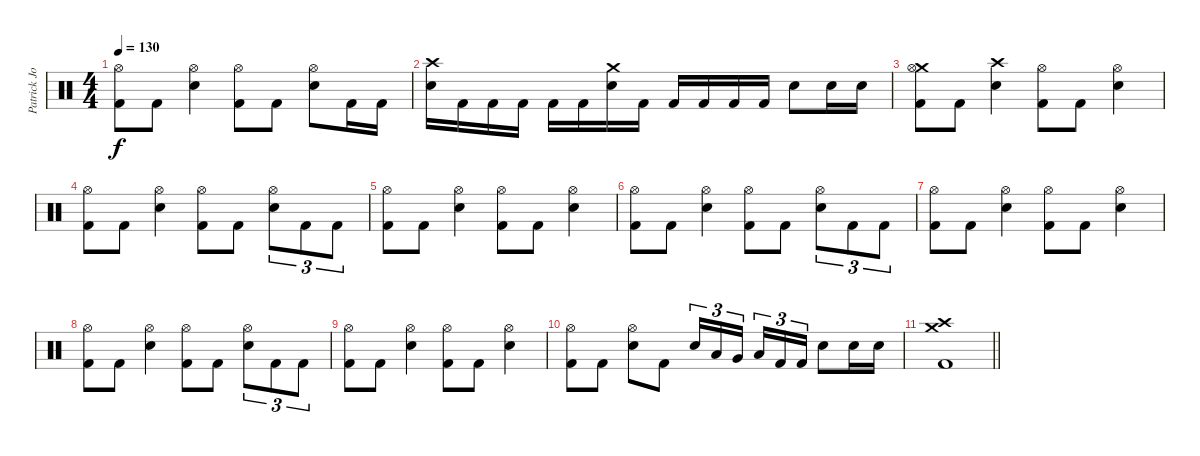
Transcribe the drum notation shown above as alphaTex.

\track ("Patrick Johansson " "Patrick Jo") {instrument percussion}
\staff {score}
\articulation defaults
\ts (4 4)
\tempo 130
\clef neutral
\ks c
("Hi-Hat (open)" "Kick (hit) 2").8{dy f} "Kick (hit) 2".8 ("Hi-Hat (open)" "Snare (hit) 2").4 ("Hi-Hat (open)" "Kick (hit) 2").8 "Kick (hit) 2".8 ("Hi-Hat (open)" "Snare (hit) 2").8 "Kick (hit) 2".16 "Kick (hit) 2".16 |
("Crash high (hit)" "Snare (hit) 2").16 "Kick (hit) 2".16 "Kick (hit) 2".16 "Kick (hit) 2".16 "Kick (hit) 2".16 "Kick (hit) 2".16 ("Crash medium (hit)" "Snare (hit) 2").16 "Kick (hit) 2".16 "Kick (hit) 2".16 "Kick (hit) 2".16 "Kick (hit) 2".16 "Kick (hit) 2".16 "Snare (hit) 2".8 "Snare (hit) 2".16 "Snare (hit) 2".16 |
("Crash medium (hit)" "Hi-Hat (open)" "Kick (hit) 2").8 "Kick (hit) 2".8 ("Crash high (hit)" "Snare (hit) 2").4 ("Hi-Hat (open)" "Kick (hit) 2").8 "Kick (hit) 2".8 ("Hi-Hat (open)" "Snare (hit) 2").4 |
("Hi-Hat (open)" "Kick (hit) 2").8 "Kick (hit) 2".8 ("Hi-Hat (open)" "Snare (hit) 2").4 ("Hi-Hat (open)" "Kick (hit) 2").8 "Kick (hit) 2".8 ("Hi-Hat (open)" "Snare (hit) 2").8{tu (3 2)} "Kick (hit) 2".8{tu (3 2)} "Kick (hit) 2".8{tu (3 2)} |
("Hi-Hat (open)" "Kick (hit) 2").8 "Kick (hit) 2".8 ("Hi-Hat (open)" "Snare (hit) 2").4 ("Hi-Hat (open)" "Kick (hit) 2").8 "Kick (hit) 2".8 ("Hi-Hat (open)" "Snare (hit) 2").4 |
("Hi-Hat (open)" "Kick (hit) 2").8 "Kick (hit) 2".8 ("Hi-Hat (open)" "Snare (hit) 2").4 ("Hi-Hat (open)" "Kick (hit) 2").8 "Kick (hit) 2".8 ("Hi-Hat (open)" "Snare (hit) 2").8{tu (3 2)} "Kick (hit) 2".8{tu (3 2)} "Kick (hit) 2".8{tu (3 2)} |
("Hi-Hat (open)" "Kick (hit) 2").8 "Kick (hit) 2".8 ("Hi-Hat (open)" "Snare (hit) 2").4 ("Hi-Hat (open)" "Kick (hit) 2").8 "Kick (hit) 2".8 ("Hi-Hat (open)" "Snare (hit) 2").4 |
("Hi-Hat (open)" "Kick (hit) 2").8 "Kick (hit) 2".8 ("Hi-Hat (open)" "Snare (hit) 2").4 ("Hi-Hat (open)" "Kick (hit) 2").8 "Kick (hit) 2".8 ("Hi-Hat (open)" "Snare (hit) 2").8{tu (3 2)} "Kick (hit) 2".8{tu (3 2)} "Kick (hit) 2".8{tu (3 2)} |
("Hi-Hat (open)" "Kick (hit) 2").8 "Kick (hit) 2".8 ("Hi-Hat (open)" "Snare (hit) 2").4 ("Hi-Hat (open)" "Kick (hit) 2").8 "Kick (hit) 2".8 ("Hi-Hat (open)" "Snare (hit) 2").4 |
("Hi-Hat (open)" "Kick (hit) 2").8 "Kick (hit) 2".8 ("Hi-Hat (open)" "Snare (hit) 2").8 "Kick (hit) 2".8 "Snare (hit) 2".16{tu (3 2)} "Low Tom (hit)".16{tu (3 2)} "Very Low Tom (hit)".16{tu (3 2) beam splitsecondary} "Low Floor Tom (hit)".16{tu (3 2)} "Kick (hit) 2".16{tu (3 2)} "Kick (hit) 2".16{tu (3 2)} "Snare (hit) 2".8 "Snare (hit) 2".16 "Snare (hit) 2".16 |
\barLineRight lightlight
("Crash medium (hit)" "Crash high (hit)" "Kick (hit) 2").1
